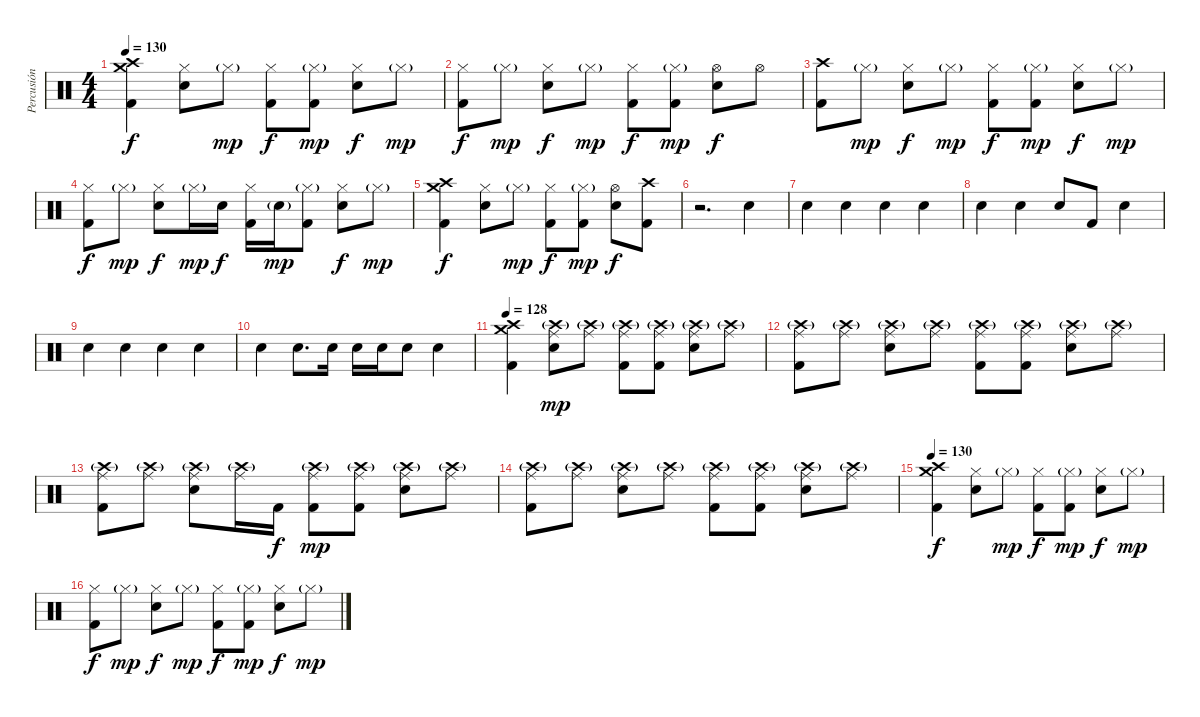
\track ("Percusión" "Percusión") {instrument percussion}
\staff {score}
\articulation defaults
\ts (4 4)
\tempo 130
\clef neutral
\ks c
("Crash high (hit)" "Crash medium (hit)" "Kick (hit) 2").4{dy f} ("Hi-Hat (closed)" "Snare (hit) 2").8 "Hi-Hat (closed)"{g}.8{dy mp} ("Hi-Hat (closed)" "Kick (hit) 2").8{dy f} ("Hi-Hat (closed)"{g} "Kick (hit) 2").8{dy mp} ("Hi-Hat (closed)" "Snare (hit) 2").8{dy f} "Hi-Hat (closed)"{g}.8{dy mp} |
("Hi-Hat (closed)" "Kick (hit) 2").8{dy f} "Hi-Hat (closed)"{g}.8{dy mp} ("Hi-Hat (closed)" "Snare (hit) 2").8{dy f} "Hi-Hat (closed)"{g}.8{dy mp} ("Hi-Hat (closed)" "Kick (hit) 2").8{dy f} ("Hi-Hat (closed)"{g} "Kick (hit) 2").8{dy mp} ("Hi-Hat (open)" "Snare (hit) 2").8{dy f} "Hi-Hat (open)".8 |
("Crash high (hit)" "Kick (hit) 2").8 "Hi-Hat (closed)"{g}.8{dy mp} ("Hi-Hat (closed)" "Snare (hit) 2").8{dy f} "Hi-Hat (closed)"{g}.8{dy mp} ("Hi-Hat (closed)" "Kick (hit) 2").8{dy f} ("Hi-Hat (closed)"{g} "Kick (hit) 2").8{dy mp} ("Hi-Hat (closed)" "Snare (hit) 2").8{dy f} "Hi-Hat (closed)"{g}.8{dy mp} |
("Hi-Hat (closed)" "Kick (hit) 2").8{dy f} "Hi-Hat (closed)"{g}.8{dy mp} ("Hi-Hat (closed)" "Snare (hit) 2").8{dy f} "Hi-Hat (closed)"{g}.16{dy mp} "Snare (hit) 2".16{dy f} ("Hi-Hat (closed)" "Kick (hit) 2").16 "Snare (hit) 2"{g}.16{dy mp} ("Hi-Hat (closed)"{g} "Kick (hit) 2").8 ("Hi-Hat (closed)" "Snare (hit) 2").8{dy f} "Hi-Hat (closed)"{g}.8{dy mp} |
("Crash high (hit)" "Crash medium (hit)" "Kick (hit) 2").4{dy f} ("Hi-Hat (closed)" "Snare (hit) 2").8 "Hi-Hat (closed)"{g}.8{dy mp} ("Hi-Hat (closed)" "Kick (hit) 2").8{dy f} ("Hi-Hat (closed)"{g} "Kick (hit) 2").8{dy mp} ("Hi-Hat (open)" "Snare (hit) 2").8{dy f} ("Crash high (hit)" "Kick (hit) 2").8 |
r.2{d} "Snare (hit) 2".4 |
"Snare (hit) 2".4 "Snare (hit) 2".4 "Snare (hit) 2".4 "Snare (hit) 2".4 |
"Snare (hit) 2".4 "Snare (hit) 2".4 "Snare (hit) 2".8 "Kick (hit) 2".8 "Snare (hit) 2".4 |
"Snare (hit) 2".4 "Snare (hit) 2".4 "Snare (hit) 2".4 "Snare (hit) 2".4 |
"Snare (hit) 2".4 "Snare (hit) 2".8{d} "Snare (hit) 2".16 "Snare (hit) 2".16 "Snare (hit) 2".16 "Snare (hit) 2".8 "Snare (hit) 2".4 |
\tempo 128
("Crash high (hit)" "Crash medium (hit)" "Kick (hit) 2").4 ("Crash high (hit)"{g} "Ride (middle)" "Snare (hit) 2").8{dy mp} ("Crash high (hit)"{g} "Ride (middle)").8 ("Crash high (hit)"{g} "Ride (middle)" "Kick (hit) 2").8 ("Crash high (hit)"{g} "Ride (middle)" "Kick (hit) 2").8 ("Crash high (hit)"{g} "Ride (middle)" "Snare (hit) 2").8 ("Crash high (hit)"{g} "Ride (middle)").8 |
("Crash high (hit)"{g} "Ride (middle)" "Kick (hit) 2").8 ("Crash high (hit)"{g} "Ride (middle)").8 ("Crash high (hit)"{g} "Ride (middle)" "Snare (hit) 2").8 ("Crash high (hit)"{g} "Ride (middle)").8 ("Crash high (hit)"{g} "Ride (middle)" "Kick (hit) 2").8 ("Crash high (hit)"{g} "Ride (middle)" "Kick (hit) 2").8 ("Crash high (hit)"{g} "Ride (middle)" "Snare (hit) 2").8 ("Crash high (hit)"{g} "Ride (middle)").8 |
("Crash high (hit)"{g} "Ride (middle)" "Kick (hit) 2").8 ("Crash high (hit)"{g} "Ride (middle)").8 ("Crash high (hit)"{g} "Ride (middle)" "Snare (hit) 2").8 ("Crash high (hit)"{g} "Ride (middle)").16 "Kick (hit) 2".16{dy f} ("Crash high (hit)"{g} "Ride (middle)" "Kick (hit) 2").8{dy mp} ("Crash high (hit)"{g} "Ride (middle)" "Kick (hit) 2").8 ("Crash high (hit)"{g} "Ride (middle)" "Snare (hit) 2").8 ("Crash high (hit)"{g} "Ride (middle)").8 |
("Crash high (hit)"{g} "Ride (middle)" "Kick (hit) 2").8 ("Crash high (hit)"{g} "Ride (middle)").8 ("Crash high (hit)"{g} "Ride (middle)" "Snare (hit) 2").8 ("Crash high (hit)"{g} "Ride (middle)").8 ("Crash high (hit)"{g} "Ride (middle)" "Kick (hit) 2").8 ("Crash high (hit)"{g} "Ride (middle)" "Kick (hit) 2").8 ("Crash high (hit)"{g} "Ride (middle)" "Snare (hit) 2").8 ("Crash high (hit)"{g} "Ride (middle)").8 |
\tempo 130
("Crash high (hit)" "Crash medium (hit)" "Kick (hit) 2").4{dy f} ("Hi-Hat (closed)" "Snare (hit) 2").8 "Hi-Hat (closed)"{g}.8{dy mp} ("Hi-Hat (closed)" "Kick (hit) 2").8{dy f} ("Hi-Hat (closed)"{g} "Kick (hit) 2").8{dy mp} ("Hi-Hat (closed)" "Snare (hit) 2").8{dy f} "Hi-Hat (closed)"{g}.8{dy mp} |
("Hi-Hat (closed)" "Kick (hit) 2").8{dy f} "Hi-Hat (closed)"{g}.8{dy mp} ("Hi-Hat (closed)" "Snare (hit) 2").8{dy f} "Hi-Hat (closed)"{g}.8{dy mp} ("Hi-Hat (closed)" "Kick (hit) 2").8{dy f} ("Hi-Hat (closed)"{g} "Kick (hit) 2").8{dy mp} ("Hi-Hat (closed)" "Snare (hit) 2").8{dy f} "Hi-Hat (closed)"{g}.8{dy mp}
